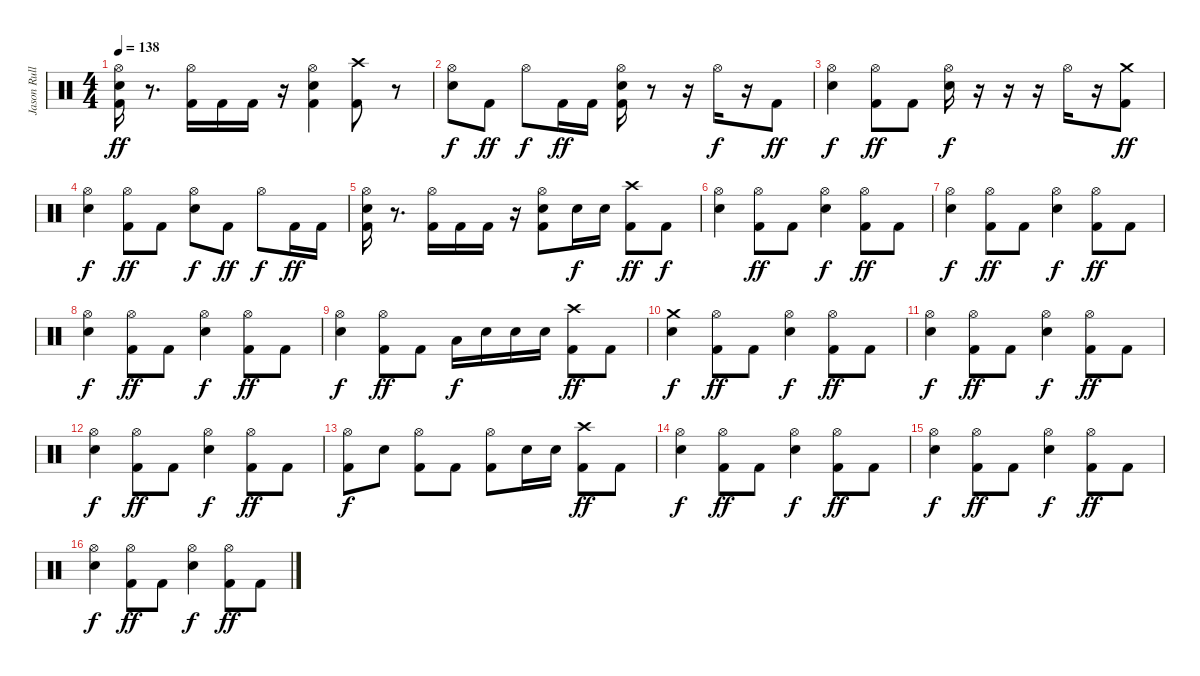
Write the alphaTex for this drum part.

\track ("Jason Rullo" "Jason Rull") {instrument percussion}
\staff {score}
\articulation defaults
\ts (4 4)
\tempo 138
\clef neutral
\ks c
("Kick (hit) 2" "Electric Snare (hit)" "Hi-Hat (open)").16{dy ff} r.8{d} ("Kick (hit) 2" "Hi-Hat (open)").16 "Kick (hit) 2".16 "Kick (hit) 2".16 r.16 ("Kick (hit) 2" "Electric Snare (hit)" "Hi-Hat (open)").4 ("Kick (hit) 2" "Crash high (hit)").8 r.8 |
("Electric Snare (hit)" "Hi-Hat (open)").8{dy f} "Kick (hit) 2".8{dy ff} "Hi-Hat (open)".8{dy f} "Kick (hit) 2".16{dy ff} "Kick (hit) 2".16 ("Kick (hit) 2" "Electric Snare (hit)" "Hi-Hat (open)").16 r.8 r.16 "Hi-Hat (open)".16{dy f} r.16 "Kick (hit) 2".8{dy ff} |
("Electric Snare (hit)" "Hi-Hat (open)").4{dy f} ("Kick (hit) 2" "Hi-Hat (open)").8{dy ff} "Kick (hit) 2".8 ("Electric Snare (hit)" "Hi-Hat (open)").16{dy f} r.16 r.16 r.16 "Hi-Hat (open)".16 r.16 ("Kick (hit) 2" "Crash medium (hit)").8{dy ff} |
("Electric Snare (hit)" "Hi-Hat (open)").4{dy f} ("Kick (hit) 2" "Hi-Hat (open)").8{dy ff} "Kick (hit) 2".8 ("Electric Snare (hit)" "Hi-Hat (open)").8{dy f} "Kick (hit) 2".8{dy ff} "Hi-Hat (open)".8{dy f} "Kick (hit) 2".16{dy ff} "Kick (hit) 2".16 |
("Kick (hit) 2" "Electric Snare (hit)" "Hi-Hat (open)").16 r.8{d} ("Kick (hit) 2" "Hi-Hat (open)").16 "Kick (hit) 2".16 "Kick (hit) 2".16 r.16 ("Kick (hit) 2" "Electric Snare (hit)" "Hi-Hat (open)").8 "Electric Snare (hit)".16{dy f} "Electric Snare (hit)".16 ("Kick (hit) 2" "Crash high (hit)").8{dy ff} "Kick (hit) 2".8{dy f} |
("Electric Snare (hit)" "Hi-Hat (open)").4 ("Kick (hit) 2" "Hi-Hat (open)").8{dy ff} "Kick (hit) 2".8 ("Electric Snare (hit)" "Hi-Hat (open)").4{dy f} ("Kick (hit) 2" "Hi-Hat (open)").8{dy ff} "Kick (hit) 2".8 |
("Electric Snare (hit)" "Hi-Hat (open)").4{dy f} ("Kick (hit) 2" "Hi-Hat (open)").8{dy ff} "Kick (hit) 2".8 ("Electric Snare (hit)" "Hi-Hat (open)").4{dy f} ("Kick (hit) 2" "Hi-Hat (open)").8{dy ff} "Kick (hit) 2".8 |
("Electric Snare (hit)" "Hi-Hat (open)").4{dy f} ("Kick (hit) 2" "Hi-Hat (open)").8{dy ff} "Kick (hit) 2".8 ("Electric Snare (hit)" "Hi-Hat (open)").4{dy f} ("Kick (hit) 2" "Hi-Hat (open)").8{dy ff} "Kick (hit) 2".8 |
("Electric Snare (hit)" "Hi-Hat (open)").4{dy f} ("Kick (hit) 2" "Hi-Hat (open)").8{dy ff} "Kick (hit) 2".8 "Low Tom (hit)".16{dy f} "Electric Snare (hit)".16 "Electric Snare (hit)".16 "Electric Snare (hit)".16 ("Kick (hit) 2" "Crash high (hit)").8{dy ff} "Kick (hit) 2".8 |
("Electric Snare (hit)" "Crash medium (hit)").4{dy f} ("Kick (hit) 2" "Hi-Hat (open)").8{dy ff} "Kick (hit) 2".8 ("Electric Snare (hit)" "Hi-Hat (open)").4{dy f} ("Kick (hit) 2" "Hi-Hat (open)").8{dy ff} "Kick (hit) 2".8 |
("Electric Snare (hit)" "Hi-Hat (open)").4{dy f} ("Kick (hit) 2" "Hi-Hat (open)").8{dy ff} "Kick (hit) 2".8 ("Electric Snare (hit)" "Hi-Hat (open)").4{dy f} ("Kick (hit) 2" "Hi-Hat (open)").8{dy ff} "Kick (hit) 2".8 |
("Electric Snare (hit)" "Hi-Hat (open)").4{dy f} ("Kick (hit) 2" "Hi-Hat (open)").8{dy ff} "Kick (hit) 2".8 ("Electric Snare (hit)" "Hi-Hat (open)").4{dy f} ("Kick (hit) 2" "Hi-Hat (open)").8{dy ff} "Kick (hit) 2".8 |
("Kick (hit) 2" "Hi-Hat (open)").8{dy f} "Electric Snare (hit)".8 ("Kick (hit) 2" "Hi-Hat (open)").8 "Kick (hit) 2".8 ("Kick (hit) 2" "Hi-Hat (open)").8 "Electric Snare (hit)".16 "Electric Snare (hit)".16 ("Kick (hit) 2" "Crash high (hit)").8{dy ff} "Kick (hit) 2".8 |
("Electric Snare (hit)" "Hi-Hat (open)").4{dy f} ("Kick (hit) 2" "Hi-Hat (open)").8{dy ff} "Kick (hit) 2".8 ("Electric Snare (hit)" "Hi-Hat (open)").4{dy f} ("Kick (hit) 2" "Hi-Hat (open)").8{dy ff} "Kick (hit) 2".8 |
("Electric Snare (hit)" "Hi-Hat (open)").4{dy f} ("Kick (hit) 2" "Hi-Hat (open)").8{dy ff} "Kick (hit) 2".8 ("Electric Snare (hit)" "Hi-Hat (open)").4{dy f} ("Kick (hit) 2" "Hi-Hat (open)").8{dy ff} "Kick (hit) 2".8 |
("Electric Snare (hit)" "Hi-Hat (open)").4{dy f} ("Kick (hit) 2" "Hi-Hat (open)").8{dy ff} "Kick (hit) 2".8 ("Electric Snare (hit)" "Hi-Hat (open)").4{dy f} ("Kick (hit) 2" "Hi-Hat (open)").8{dy ff} "Kick (hit) 2".8
